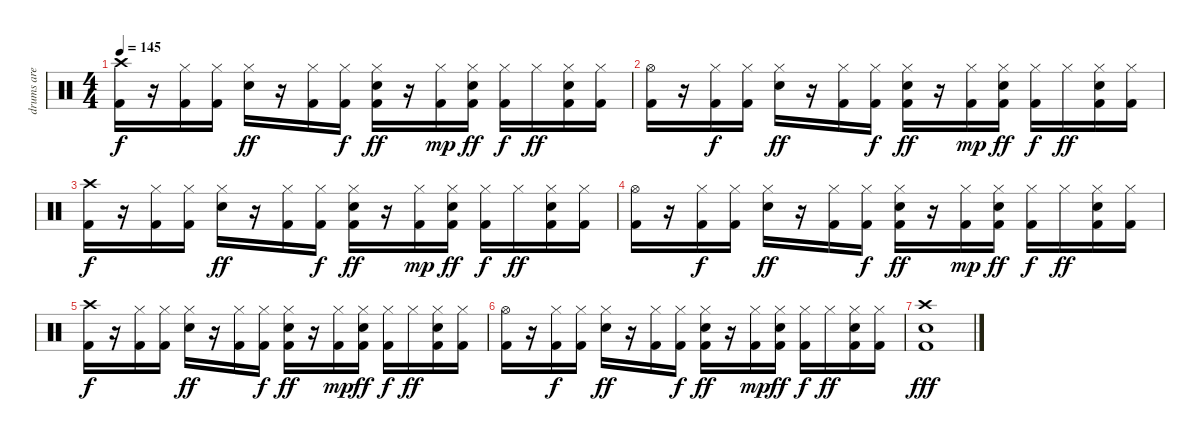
\track ("drums are cool   >.<" "drums are ") {instrument percussion}
\staff {score}
\articulation defaults
\ts (4 4)
\tempo 145
\clef neutral
\ks c
("Crash high (hit)" "Kick (hit) 2").16{dy f} r.16 ("Hi-Hat (closed)" "Kick (hit) 2").16 ("Hi-Hat (closed)" "Kick (hit) 2").16 ("Hi-Hat (closed)" "Snare (hit)").16{dy ff} r.16 ("Hi-Hat (closed)" "Kick (hit) 2").16 ("Hi-Hat (closed)" "Kick (hit) 2").16{dy f} ("Hi-Hat (closed)" "Snare (hit) 2" "Kick (hit) 2").16{dy ff} r.16 ("Hi-Hat (closed)" "Kick (hit) 2").16{dy mp} ("Hi-Hat (closed)" "Snare (hit) 2" "Kick (hit) 2").16{dy ff} ("Hi-Hat (closed)" "Kick (hit) 2").16{dy f} "Hi-Hat (closed)".16{dy ff} ("Hi-Hat (closed)" "Snare (hit) 2" "Kick (hit) 2").16 ("Hi-Hat (closed)" "Kick (hit) 2").16 |
("Hi-Hat (open)" "Kick (hit) 2").16 r.16 ("Hi-Hat (closed)" "Kick (hit) 2").16{dy f} ("Hi-Hat (closed)" "Kick (hit) 2").16 ("Hi-Hat (closed)" "Snare (hit)").16{dy ff} r.16 ("Hi-Hat (closed)" "Kick (hit) 2").16 ("Hi-Hat (closed)" "Kick (hit) 2").16{dy f} ("Hi-Hat (closed)" "Snare (hit) 2" "Kick (hit) 2").16{dy ff} r.16 ("Hi-Hat (closed)" "Kick (hit) 2").16{dy mp} ("Hi-Hat (closed)" "Snare (hit) 2" "Kick (hit) 2").16{dy ff} ("Hi-Hat (closed)" "Kick (hit) 2").16{dy f} "Hi-Hat (closed)".16{dy ff} ("Hi-Hat (closed)" "Snare (hit) 2" "Kick (hit) 2").16 ("Hi-Hat (closed)" "Kick (hit) 2").16 |
("Crash high (hit)" "Kick (hit) 2").16{dy f} r.16 ("Hi-Hat (closed)" "Kick (hit) 2").16 ("Hi-Hat (closed)" "Kick (hit) 2").16 ("Hi-Hat (closed)" "Snare (hit)").16{dy ff} r.16 ("Hi-Hat (closed)" "Kick (hit) 2").16 ("Hi-Hat (closed)" "Kick (hit) 2").16{dy f} ("Hi-Hat (closed)" "Snare (hit) 2" "Kick (hit) 2").16{dy ff} r.16 ("Hi-Hat (closed)" "Kick (hit) 2").16{dy mp} ("Hi-Hat (closed)" "Snare (hit) 2" "Kick (hit) 2").16{dy ff} ("Hi-Hat (closed)" "Kick (hit) 2").16{dy f} "Hi-Hat (closed)".16{dy ff} ("Hi-Hat (closed)" "Snare (hit) 2" "Kick (hit) 2").16 ("Hi-Hat (closed)" "Kick (hit) 2").16 |
("Hi-Hat (open)" "Kick (hit) 2").16 r.16 ("Hi-Hat (closed)" "Kick (hit) 2").16{dy f} ("Hi-Hat (closed)" "Kick (hit) 2").16 ("Hi-Hat (closed)" "Snare (hit)").16{dy ff} r.16 ("Hi-Hat (closed)" "Kick (hit) 2").16 ("Hi-Hat (closed)" "Kick (hit) 2").16{dy f} ("Hi-Hat (closed)" "Snare (hit) 2" "Kick (hit) 2").16{dy ff} r.16 ("Hi-Hat (closed)" "Kick (hit) 2").16{dy mp} ("Hi-Hat (closed)" "Snare (hit) 2" "Kick (hit) 2").16{dy ff} ("Hi-Hat (closed)" "Kick (hit) 2").16{dy f} "Hi-Hat (closed)".16{dy ff} ("Hi-Hat (closed)" "Snare (hit) 2" "Kick (hit) 2").16 ("Hi-Hat (closed)" "Kick (hit) 2").16 |
("Crash high (hit)" "Kick (hit) 2").16{dy f} r.16 ("Hi-Hat (closed)" "Kick (hit) 2").16 ("Hi-Hat (closed)" "Kick (hit) 2").16 ("Hi-Hat (closed)" "Snare (hit)").16{dy ff} r.16 ("Hi-Hat (closed)" "Kick (hit) 2").16 ("Hi-Hat (closed)" "Kick (hit) 2").16{dy f} ("Hi-Hat (closed)" "Snare (hit) 2" "Kick (hit) 2").16{dy ff} r.16 ("Hi-Hat (closed)" "Kick (hit) 2").16{dy mp} ("Hi-Hat (closed)" "Snare (hit) 2" "Kick (hit) 2").16{dy ff} ("Hi-Hat (closed)" "Kick (hit) 2").16{dy f} "Hi-Hat (closed)".16{dy ff} ("Hi-Hat (closed)" "Snare (hit) 2" "Kick (hit) 2").16 ("Hi-Hat (closed)" "Kick (hit) 2").16 |
("Hi-Hat (open)" "Kick (hit) 2").16 r.16 ("Hi-Hat (closed)" "Kick (hit) 2").16{dy f} ("Hi-Hat (closed)" "Kick (hit) 2").16 ("Hi-Hat (closed)" "Snare (hit)").16{dy ff} r.16 ("Hi-Hat (closed)" "Kick (hit) 2").16 ("Hi-Hat (closed)" "Kick (hit) 2").16{dy f} ("Hi-Hat (closed)" "Snare (hit) 2" "Kick (hit) 2").16{dy ff} r.16 ("Hi-Hat (closed)" "Kick (hit) 2").16{dy mp} ("Hi-Hat (closed)" "Snare (hit) 2" "Kick (hit) 2").16{dy ff} ("Hi-Hat (closed)" "Kick (hit) 2").16{dy f} "Hi-Hat (closed)".16{dy ff} ("Hi-Hat (closed)" "Snare (hit) 2" "Kick (hit) 2").16 ("Hi-Hat (closed)" "Kick (hit) 2").16 |
("Crash high (hit)" "Snare (hit) 2" "Kick (hit) 2").1{dy fff}
